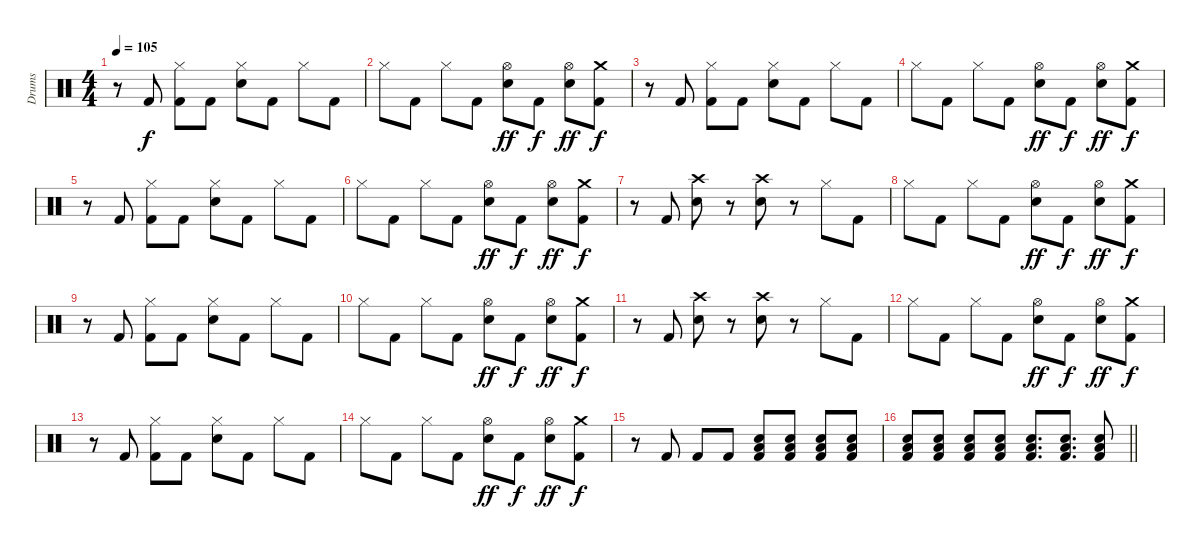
\track ("Drums" "Drums") {instrument percussion}
\staff {score}
\articulation defaults
\ts (4 4)
\tempo 105
\clef neutral
\ks c
r.8{dy f} "Kick (hit) 2".8 ("Hi-Hat (closed)" "Kick (hit) 2").8 "Kick (hit) 2".8 ("Hi-Hat (closed)" "Snare (hit) 2").8 "Kick (hit) 2".8 "Hi-Hat (closed)".8 "Kick (hit) 2".8 |
"Hi-Hat (closed)".8 "Kick (hit) 2".8 "Hi-Hat (closed)".8 "Kick (hit) 2".8 ("Hi-Hat (open)" "Snare (hit) 2").8{dy ff} "Kick (hit) 2".8{dy f} ("Hi-Hat (open)" "Snare (hit) 2").8{dy ff} ("Crash medium (hit)" "Kick (hit) 2").8{dy f} |
r.8 "Kick (hit) 2".8 ("Hi-Hat (closed)" "Kick (hit) 2").8 "Kick (hit) 2".8 ("Hi-Hat (closed)" "Snare (hit) 2").8 "Kick (hit) 2".8 "Hi-Hat (closed)".8 "Kick (hit) 2".8 |
"Hi-Hat (closed)".8 "Kick (hit) 2".8 "Hi-Hat (closed)".8 "Kick (hit) 2".8 ("Hi-Hat (open)" "Snare (hit) 2").8{dy ff} "Kick (hit) 2".8{dy f} ("Hi-Hat (open)" "Snare (hit) 2").8{dy ff} ("Crash medium (hit)" "Kick (hit) 2").8{dy f} |
r.8 "Kick (hit) 2".8 ("Hi-Hat (closed)" "Kick (hit) 2").8 "Kick (hit) 2".8 ("Hi-Hat (closed)" "Snare (hit) 2").8 "Kick (hit) 2".8 "Hi-Hat (closed)".8 "Kick (hit) 2".8 |
"Hi-Hat (closed)".8 "Kick (hit) 2".8 "Hi-Hat (closed)".8 "Kick (hit) 2".8 ("Hi-Hat (open)" "Snare (hit) 2").8{dy ff} "Kick (hit) 2".8{dy f} ("Hi-Hat (open)" "Snare (hit) 2").8{dy ff} ("Crash medium (hit)" "Kick (hit) 2").8{dy f} |
r.8 "Kick (hit) 2".8 ("Crash high (hit)" "Snare (hit) 2").8 r.8 ("Crash high (hit)" "Snare (hit) 2").8 r.8 "Hi-Hat (closed)".8 "Kick (hit) 2".8 |
"Hi-Hat (closed)".8 "Kick (hit) 2".8 "Hi-Hat (closed)".8 "Kick (hit) 2".8 ("Hi-Hat (open)" "Snare (hit) 2").8{dy ff} "Kick (hit) 2".8{dy f} ("Hi-Hat (open)" "Snare (hit) 2").8{dy ff} ("Crash medium (hit)" "Kick (hit) 2").8{dy f} |
r.8 "Kick (hit) 2".8 ("Hi-Hat (closed)" "Kick (hit) 2").8 "Kick (hit) 2".8 ("Hi-Hat (closed)" "Snare (hit) 2").8 "Kick (hit) 2".8 "Hi-Hat (closed)".8 "Kick (hit) 2".8 |
"Hi-Hat (closed)".8 "Kick (hit) 2".8 "Hi-Hat (closed)".8 "Kick (hit) 2".8 ("Hi-Hat (open)" "Snare (hit) 2").8{dy ff} "Kick (hit) 2".8{dy f} ("Hi-Hat (open)" "Snare (hit) 2").8{dy ff} ("Crash medium (hit)" "Kick (hit) 2").8{dy f} |
r.8 "Kick (hit) 2".8 ("Crash high (hit)" "Snare (hit) 2").8 r.8 ("Crash high (hit)" "Snare (hit) 2").8 r.8 "Hi-Hat (closed)".8 "Kick (hit) 2".8 |
"Hi-Hat (closed)".8 "Kick (hit) 2".8 "Hi-Hat (closed)".8 "Kick (hit) 2".8 ("Hi-Hat (open)" "Snare (hit) 2").8{dy ff} "Kick (hit) 2".8{dy f} ("Hi-Hat (open)" "Snare (hit) 2").8{dy ff} ("Crash medium (hit)" "Kick (hit) 2").8{dy f} |
r.8 "Kick (hit) 2".8 ("Hi-Hat (closed)" "Kick (hit) 2").8 "Kick (hit) 2".8 ("Hi-Hat (closed)" "Snare (hit) 2").8 "Kick (hit) 2".8 "Hi-Hat (closed)".8 "Kick (hit) 2".8 |
"Hi-Hat (closed)".8 "Kick (hit) 2".8 "Hi-Hat (closed)".8 "Kick (hit) 2".8 ("Hi-Hat (open)" "Snare (hit) 2").8{dy ff} "Kick (hit) 2".8{dy f} ("Hi-Hat (open)" "Snare (hit) 2").8{dy ff} ("Crash medium (hit)" "Kick (hit) 2").8{dy f} |
r.8 "Kick (hit) 2".8 "Kick (hit) 2".8 "Kick (hit) 2".8 ("Low Floor Tom (hit)" "Snare (hit) 2" "Kick (hit) 2").8 ("Low Floor Tom (hit)" "Snare (hit) 2" "Kick (hit) 2").8 ("Low Floor Tom (hit)" "Snare (hit) 2" "Kick (hit) 2").8 ("Low Floor Tom (hit)" "Snare (hit) 2" "Kick (hit) 2").8 |
\barLineRight lightlight
("Low Floor Tom (hit)" "Snare (hit) 2" "Kick (hit) 2").8 ("Low Floor Tom (hit)" "Snare (hit) 2" "Kick (hit) 2").8 ("Low Floor Tom (hit)" "Snare (hit) 2" "Kick (hit) 2").8 ("Low Floor Tom (hit)" "Snare (hit) 2" "Kick (hit) 2").8 ("Low Floor Tom (hit)" "Snare (hit) 2" "Kick (hit) 2").8{d} ("Low Floor Tom (hit)" "Snare (hit) 2" "Kick (hit) 2").8{d} ("Low Floor Tom (hit)" "Snare (hit) 2" "Kick (hit) 2").8
